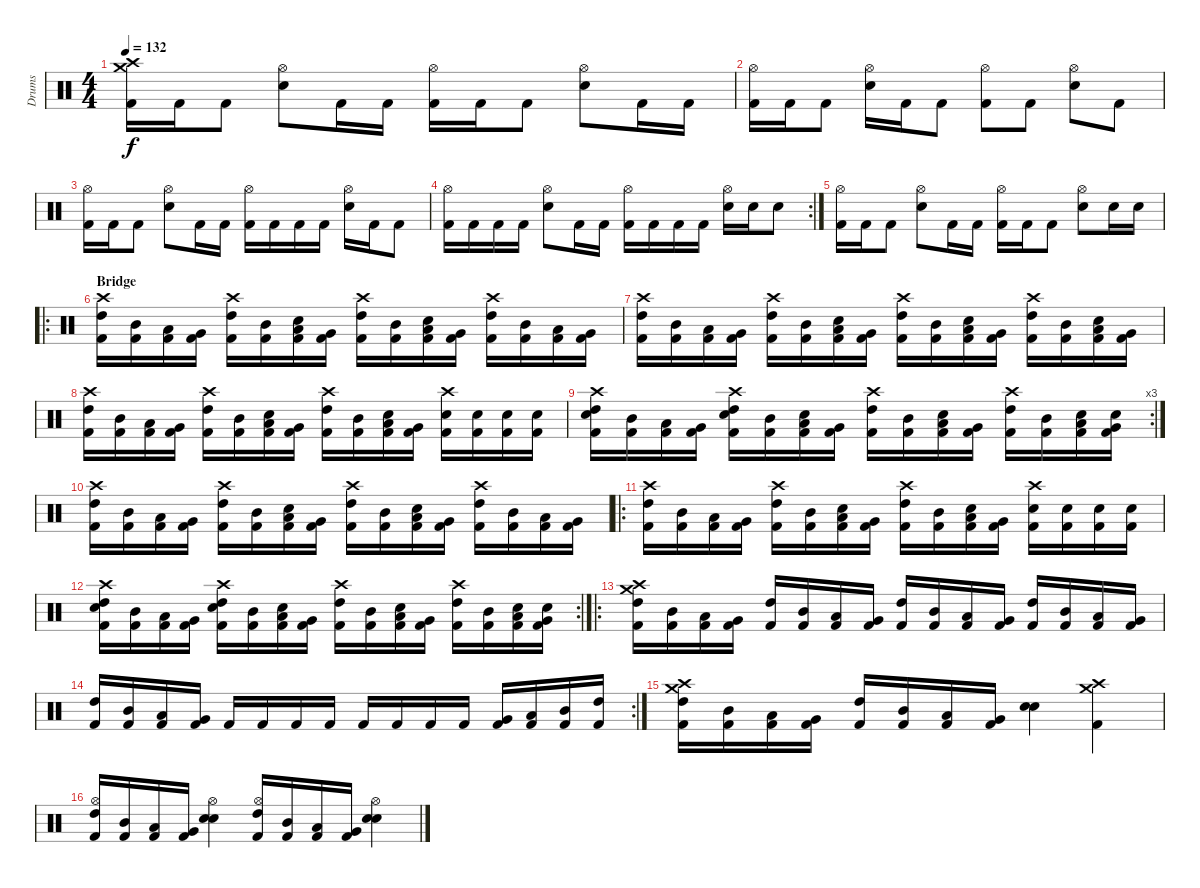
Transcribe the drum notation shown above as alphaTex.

\track ("Drums" "Drums") {instrument percussion}
\staff {score}
\articulation defaults
\ts (4 4)
\tempo 132
\clef neutral
\ks c
("Crash high (hit)" "Crash medium (hit)" "Kick (hit) 2").16{dy f} "Kick (hit) 2".16 "Kick (hit) 2".8 ("Hi-Hat (open)" "Electric Snare (hit)").8 "Kick (hit) 2".16 "Kick (hit) 2".16 ("Hi-Hat (open)" "Kick (hit) 2").16 "Kick (hit) 2".16 "Kick (hit) 2".8 ("Hi-Hat (open)" "Electric Snare (hit)").8 "Kick (hit) 2".16 "Kick (hit) 2".16 |
("Hi-Hat (open)" "Kick (hit) 2").16 "Kick (hit) 2".16 "Kick (hit) 2".8 ("Hi-Hat (open)" "Electric Snare (hit)").16 "Kick (hit) 2".16 "Kick (hit) 2".8 ("Hi-Hat (open)" "Kick (hit) 2").8 "Kick (hit) 2".8 ("Hi-Hat (open)" "Electric Snare (hit)").8 "Kick (hit) 2".8 |
("Hi-Hat (open)" "Kick (hit) 2").16 "Kick (hit) 2".16 "Kick (hit) 2".8 ("Hi-Hat (open)" "Electric Snare (hit)").8 "Kick (hit) 2".16 "Kick (hit) 2".16 ("Hi-Hat (open)" "Kick (hit) 2").16 "Kick (hit) 2".16 "Kick (hit) 2".16 "Kick (hit) 2".16 ("Hi-Hat (open)" "Electric Snare (hit)").16 "Kick (hit) 2".16 "Kick (hit) 2".8 |
\rc 2
("Hi-Hat (open)" "Kick (hit) 2").16 "Kick (hit) 2".16 "Kick (hit) 2".16 "Kick (hit) 2".16 ("Hi-Hat (open)" "Electric Snare (hit)").8 "Kick (hit) 2".16 "Kick (hit) 2".16 ("Hi-Hat (open)" "Kick (hit) 2").16 "Kick (hit) 2".16 "Kick (hit) 2".16 "Kick (hit) 2".16 ("Hi-Hat (open)" "Electric Snare (hit)").16 "Electric Snare (hit)".16 "Electric Snare (hit)".8 |
("Hi-Hat (open)" "Kick (hit) 2").16 "Kick (hit) 2".16 "Kick (hit) 2".8 ("Hi-Hat (open)" "Electric Snare (hit)").8 "Kick (hit) 2".16 "Kick (hit) 2".16 ("Hi-Hat (open)" "Kick (hit) 2").16 "Kick (hit) 2".16 "Kick (hit) 2".8 ("Hi-Hat (open)" "Electric Snare (hit)").8 "Electric Snare (hit)".16 "Electric Snare (hit)".16 |
\ro
\section ("" "Bridge")
("Crash high (hit)" "High Tom (hit)" "Kick (hit) 2").16 ("Mid Tom (hit)" "Kick (hit) 2").16 ("Low Tom (hit)" "Kick (hit) 2").16 ("Very Low Tom (hit)" "Kick (hit) 2").16 ("Crash high (hit)" "High Tom (hit)" "Kick (hit) 2").16 ("Mid Tom (hit)" "Kick (hit) 2").16 ("Low Tom (hit)" "Electric Snare (hit)" "Kick (hit) 2").16 ("Very Low Tom (hit)" "Kick (hit) 2").16 ("Crash high (hit)" "High Tom (hit)" "Kick (hit) 2").16 ("Mid Tom (hit)" "Kick (hit) 2").16 ("Low Tom (hit)" "Electric Snare (hit)" "Kick (hit) 2").16 ("Very Low Tom (hit)" "Kick (hit) 2").16 ("Crash high (hit)" "High Tom (hit)" "Kick (hit) 2").16 ("Mid Tom (hit)" "Kick (hit) 2").16 ("Low Tom (hit)" "Kick (hit) 2").16 ("Very Low Tom (hit)" "Kick (hit) 2").16 |
("Crash high (hit)" "High Tom (hit)" "Kick (hit) 2").16 ("Mid Tom (hit)" "Kick (hit) 2").16 ("Low Tom (hit)" "Kick (hit) 2").16 ("Very Low Tom (hit)" "Kick (hit) 2").16 ("Crash high (hit)" "High Tom (hit)" "Kick (hit) 2").16 ("Mid Tom (hit)" "Kick (hit) 2").16 ("Low Tom (hit)" "Electric Snare (hit)" "Kick (hit) 2").16 ("Very Low Tom (hit)" "Kick (hit) 2").16 ("Crash high (hit)" "High Tom (hit)" "Kick (hit) 2").16 ("Mid Tom (hit)" "Kick (hit) 2").16 ("Low Tom (hit)" "Electric Snare (hit)" "Kick (hit) 2").16 ("Very Low Tom (hit)" "Kick (hit) 2").16 ("Crash high (hit)" "High Tom (hit)" "Kick (hit) 2").16 ("Mid Tom (hit)" "Kick (hit) 2").16 ("Low Tom (hit)" "Electric Snare (hit)" "Kick (hit) 2").16 ("Very Low Tom (hit)" "Kick (hit) 2").16 |
("Crash high (hit)" "High Tom (hit)" "Kick (hit) 2").16 ("Mid Tom (hit)" "Kick (hit) 2").16 ("Low Tom (hit)" "Kick (hit) 2").16 ("Very Low Tom (hit)" "Kick (hit) 2").16 ("Crash high (hit)" "High Tom (hit)" "Kick (hit) 2").16 ("Mid Tom (hit)" "Kick (hit) 2").16 ("Low Tom (hit)" "Electric Snare (hit)" "Kick (hit) 2").16 ("Very Low Tom (hit)" "Kick (hit) 2").16 ("Crash high (hit)" "High Tom (hit)" "Kick (hit) 2").16 ("Mid Tom (hit)" "Kick (hit) 2").16 ("Low Tom (hit)" "Electric Snare (hit)" "Kick (hit) 2").16 ("Very Low Tom (hit)" "Kick (hit) 2").16 ("Crash high (hit)" "Electric Snare (hit)" "Kick (hit) 2").16 ("Electric Snare (hit)" "Kick (hit) 2").16 ("Electric Snare (hit)" "Kick (hit) 2").16 ("Electric Snare (hit)" "Kick (hit) 2").16 |
\rc 3
("Crash high (hit)" "High Tom (hit)" "Electric Snare (hit)" "Kick (hit) 2").16 ("Mid Tom (hit)" "Kick (hit) 2").16 ("Low Tom (hit)" "Kick (hit) 2").16 ("Very Low Tom (hit)" "Kick (hit) 2").16 ("Crash high (hit)" "High Tom (hit)" "Electric Snare (hit)" "Kick (hit) 2").16 ("Mid Tom (hit)" "Kick (hit) 2").16 ("Low Tom (hit)" "Electric Snare (hit)" "Kick (hit) 2").16 ("Very Low Tom (hit)" "Kick (hit) 2").16 ("Crash high (hit)" "High Tom (hit)" "Kick (hit) 2").16 ("Mid Tom (hit)" "Kick (hit) 2").16 ("Low Tom (hit)" "Electric Snare (hit)" "Kick (hit) 2").16 ("Very Low Tom (hit)" "Kick (hit) 2").16 ("Crash high (hit)" "High Tom (hit)" "Kick (hit) 2").16 ("Mid Tom (hit)" "Kick (hit) 2").16 ("Low Tom (hit)" "Electric Snare (hit)" "Kick (hit) 2").16 ("Very Low Tom (hit)" "Electric Snare (hit)" "Kick (hit) 2").16 |
("Crash high (hit)" "High Tom (hit)" "Kick (hit) 2").16 ("Mid Tom (hit)" "Kick (hit) 2").16 ("Low Tom (hit)" "Kick (hit) 2").16 ("Very Low Tom (hit)" "Kick (hit) 2").16 ("Crash high (hit)" "High Tom (hit)" "Kick (hit) 2").16 ("Mid Tom (hit)" "Kick (hit) 2").16 ("Low Tom (hit)" "Electric Snare (hit)" "Kick (hit) 2").16 ("Very Low Tom (hit)" "Kick (hit) 2").16 ("Crash high (hit)" "High Tom (hit)" "Kick (hit) 2").16 ("Mid Tom (hit)" "Kick (hit) 2").16 ("Low Tom (hit)" "Electric Snare (hit)" "Kick (hit) 2").16 ("Very Low Tom (hit)" "Kick (hit) 2").16 ("Crash high (hit)" "High Tom (hit)" "Kick (hit) 2").16 ("Mid Tom (hit)" "Kick (hit) 2").16 ("Low Tom (hit)" "Kick (hit) 2").16 ("Very Low Tom (hit)" "Kick (hit) 2").16 |
\ro
("Crash high (hit)" "High Tom (hit)" "Kick (hit) 2").16 ("Mid Tom (hit)" "Kick (hit) 2").16 ("Low Tom (hit)" "Kick (hit) 2").16 ("Very Low Tom (hit)" "Kick (hit) 2").16 ("Crash high (hit)" "High Tom (hit)" "Kick (hit) 2").16 ("Mid Tom (hit)" "Kick (hit) 2").16 ("Low Tom (hit)" "Electric Snare (hit)" "Kick (hit) 2").16 ("Very Low Tom (hit)" "Kick (hit) 2").16 ("Crash high (hit)" "High Tom (hit)" "Kick (hit) 2").16 ("Mid Tom (hit)" "Kick (hit) 2").16 ("Low Tom (hit)" "Electric Snare (hit)" "Kick (hit) 2").16 ("Very Low Tom (hit)" "Kick (hit) 2").16 ("Crash high (hit)" "Electric Snare (hit)" "Kick (hit) 2").16 ("Electric Snare (hit)" "Kick (hit) 2").16 ("Electric Snare (hit)" "Kick (hit) 2").16 ("Electric Snare (hit)" "Kick (hit) 2").16 |
\rc 2
("Crash high (hit)" "High Tom (hit)" "Electric Snare (hit)" "Kick (hit) 2").16 ("Mid Tom (hit)" "Kick (hit) 2").16 ("Low Tom (hit)" "Kick (hit) 2").16 ("Very Low Tom (hit)" "Kick (hit) 2").16 ("Crash high (hit)" "High Tom (hit)" "Electric Snare (hit)" "Kick (hit) 2").16 ("Mid Tom (hit)" "Kick (hit) 2").16 ("Low Tom (hit)" "Electric Snare (hit)" "Kick (hit) 2").16 ("Very Low Tom (hit)" "Kick (hit) 2").16 ("Crash high (hit)" "High Tom (hit)" "Kick (hit) 2").16 ("Mid Tom (hit)" "Kick (hit) 2").16 ("Low Tom (hit)" "Electric Snare (hit)" "Kick (hit) 2").16 ("Very Low Tom (hit)" "Kick (hit) 2").16 ("Crash high (hit)" "High Tom (hit)" "Kick (hit) 2").16 ("Mid Tom (hit)" "Kick (hit) 2").16 ("Low Tom (hit)" "Electric Snare (hit)" "Kick (hit) 2").16 ("Very Low Tom (hit)" "Electric Snare (hit)" "Kick (hit) 2").16 |
\ro
("Crash high (hit)" "Crash medium (hit)" "High Tom (hit)" "Kick (hit) 2").16 ("Mid Tom (hit)" "Kick (hit) 2").16 ("Low Tom (hit)" "Kick (hit) 2").16 ("Very Low Tom (hit)" "Kick (hit) 2").16 ("High Tom (hit)" "Kick (hit) 2").16 ("Mid Tom (hit)" "Kick (hit) 2").16 ("Low Tom (hit)" "Kick (hit) 2").16 ("Very Low Tom (hit)" "Kick (hit) 2").16 ("High Tom (hit)" "Kick (hit) 2").16 ("Mid Tom (hit)" "Kick (hit) 2").16 ("Low Tom (hit)" "Kick (hit) 2").16 ("Very Low Tom (hit)" "Kick (hit) 2").16 ("High Tom (hit)" "Kick (hit) 2").16 ("Mid Tom (hit)" "Kick (hit) 2").16 ("Low Tom (hit)" "Kick (hit) 2").16 ("Very Low Tom (hit)" "Kick (hit) 2").16 |
\rc 2
("High Tom (hit)" "Kick (hit) 2").16 ("Mid Tom (hit)" "Kick (hit) 2").16 ("Low Tom (hit)" "Kick (hit) 2").16 ("Very Low Tom (hit)" "Kick (hit) 2").16 "Kick (hit) 2".16 "Kick (hit) 2".16 "Kick (hit) 2".16 "Kick (hit) 2".16 "Kick (hit) 2".16 "Kick (hit) 2".16 "Kick (hit) 2".16 "Kick (hit) 2".16 ("Very Low Tom (hit)" "Kick (hit) 2").16 ("Low Tom (hit)" "Kick (hit) 2").16 ("Mid Tom (hit)" "Kick (hit) 2").16 ("High Tom (hit)" "Kick (hit) 2").16 |
("Crash high (hit)" "Crash medium (hit)" "High Tom (hit)" "Kick (hit) 2").16 ("Mid Tom (hit)" "Kick (hit) 2").16 ("Low Tom (hit)" "Kick (hit) 2").16 ("Very Low Tom (hit)" "Kick (hit) 2").16 ("High Tom (hit)" "Kick (hit) 2").16 ("Mid Tom (hit)" "Kick (hit) 2").16 ("Low Tom (hit)" "Kick (hit) 2").16 ("Very Low Tom (hit)" "Kick (hit) 2").16 ("Electric Snare (hit)" "Electric Snare (hit)").4 ("Crash high (hit)" "Crash medium (hit)" "Kick (hit) 2").4 |
("High Tom (hit)" "Hi-Hat (open)" "Kick (hit) 2").16 ("Mid Tom (hit)" "Kick (hit) 2").16 ("Low Tom (hit)" "Kick (hit) 2").16 ("Very Low Tom (hit)" "Kick (hit) 2").16 ("Hi-Hat (open)" "Electric Snare (hit)" "Electric Snare (hit)").4 ("High Tom (hit)" "Hi-Hat (open)" "Kick (hit) 2").16 ("Mid Tom (hit)" "Kick (hit) 2").16 ("Low Tom (hit)" "Kick (hit) 2").16 ("Very Low Tom (hit)" "Kick (hit) 2").16 ("Hi-Hat (open)" "Electric Snare (hit)" "Electric Snare (hit)").4
